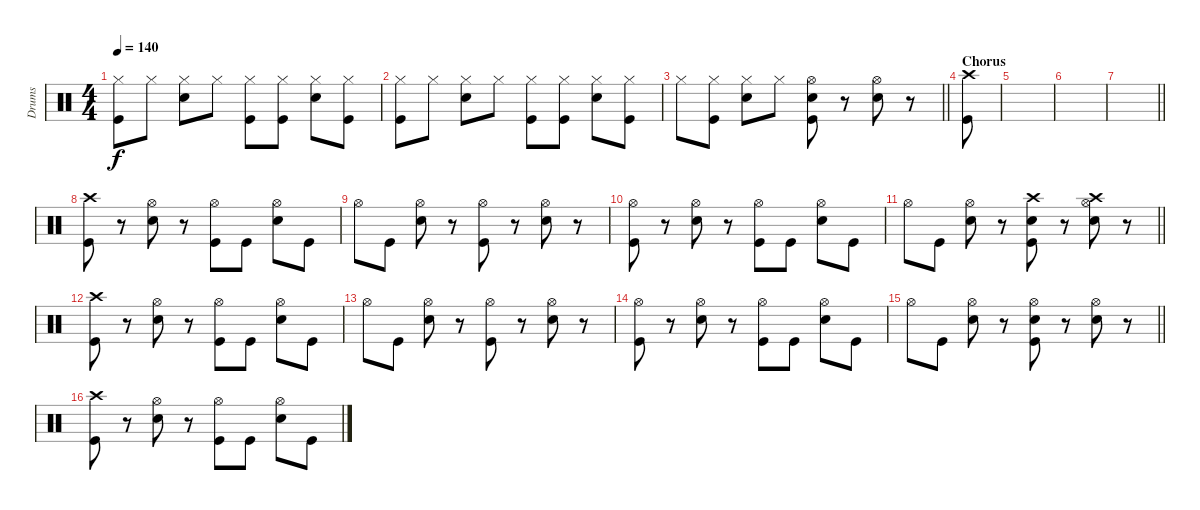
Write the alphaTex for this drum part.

\track ("Drums" "Drums") {instrument percussion}
\staff {score}
\articulation defaults
\ts (4 4)
\tempo 140
\clef neutral
\ks c
("Kick (hit)" "Hi-Hat (closed)").8{dy f} "Hi-Hat (closed)".8 ("Electric Snare (hit)" "Hi-Hat (closed)").8 "Hi-Hat (closed)".8 ("Kick (hit)" "Hi-Hat (closed)").8 ("Kick (hit)" "Hi-Hat (closed)").8 ("Electric Snare (hit)" "Hi-Hat (closed)").8 ("Kick (hit)" "Hi-Hat (closed)").8 |
("Kick (hit)" "Hi-Hat (closed)").8 "Hi-Hat (closed)".8 ("Electric Snare (hit)" "Hi-Hat (closed)").8 "Hi-Hat (closed)".8 ("Kick (hit)" "Hi-Hat (closed)").8 ("Kick (hit)" "Hi-Hat (closed)").8 ("Electric Snare (hit)" "Hi-Hat (closed)").8 ("Kick (hit)" "Hi-Hat (closed)").8 |
\barLineRight lightlight "Hi-Hat (closed)".8
("Kick (hit)" "Hi-Hat (closed)").8 ("Electric Snare (hit)" "Hi-Hat (closed)").8 "Hi-Hat (closed)".8 ("Kick (hit)" "Electric Snare (hit)" "Hi-Hat (open)").8 r.8 ("Electric Snare (hit)" "Hi-Hat (open)").8 r.8 |
\section ("" "Chorus")
("Kick (hit)" "Crash high (hit)").8 |
|
|
\barLineRight lightlight
|
("Kick (hit)" "Crash high (hit)").8 r.8 ("Electric Snare (hit)" "Hi-Hat (open)").8 r.8 ("Kick (hit)" "Hi-Hat (open)").8 "Kick (hit)".8 ("Electric Snare (hit)" "Hi-Hat (open)").8 "Kick (hit)".8 |
"Hi-Hat (open)".8 "Kick (hit)".8 ("Electric Snare (hit)" "Hi-Hat (open)").8 r.8 ("Kick (hit)" "Hi-Hat (open)").8 r.8 ("Electric Snare (hit)" "Hi-Hat (open)").8 r.8 |
("Kick (hit)" "Hi-Hat (open)").8 r.8 ("Electric Snare (hit)" "Hi-Hat (open)").8 r.8 ("Kick (hit)" "Hi-Hat (open)").8 "Kick (hit)".8 ("Electric Snare (hit)" "Hi-Hat (open)").8 "Kick (hit)".8 |
\barLineRight lightlight "Hi-Hat (open)".8 "Kick (hit)".8
("Electric Snare (hit)" "Hi-Hat (open)").8 r.8 ("Kick (hit)" "Electric Snare (hit)" "Crash high (hit)").8 r.8 ("Electric Snare (hit)" "Hi-Hat (open)" "Crash high (hit)").8 r.8 |
("Kick (hit)" "Crash high (hit)").8 r.8 ("Electric Snare (hit)" "Hi-Hat (open)").8 r.8 ("Kick (hit)" "Hi-Hat (open)").8 "Kick (hit)".8 ("Electric Snare (hit)" "Hi-Hat (open)").8 "Kick (hit)".8 |
"Hi-Hat (open)".8 "Kick (hit)".8 ("Electric Snare (hit)" "Hi-Hat (open)").8 r.8 ("Kick (hit)" "Hi-Hat (open)").8 r.8 ("Electric Snare (hit)" "Hi-Hat (open)").8 r.8 |
("Kick (hit)" "Hi-Hat (open)").8 r.8 ("Electric Snare (hit)" "Hi-Hat (open)").8 r.8 ("Kick (hit)" "Hi-Hat (open)").8 "Kick (hit)".8 ("Electric Snare (hit)" "Hi-Hat (open)").8 "Kick (hit)".8 |
\barLineRight lightlight "Hi-Hat (open)".8 "Kick (hit)".8
("Electric Snare (hit)" "Hi-Hat (open)").8 r.8 ("Kick (hit)" "Electric Snare (hit)" "Hi-Hat (open)").8 r.8 ("Electric Snare (hit)" "Hi-Hat (open)").8 r.8 |
("Kick (hit)" "Crash high (hit)").8 r.8 ("Electric Snare (hit)" "Hi-Hat (open)").8 r.8 ("Kick (hit)" "Hi-Hat (open)").8 "Kick (hit)".8 ("Electric Snare (hit)" "Hi-Hat (open)").8 "Kick (hit)".8
